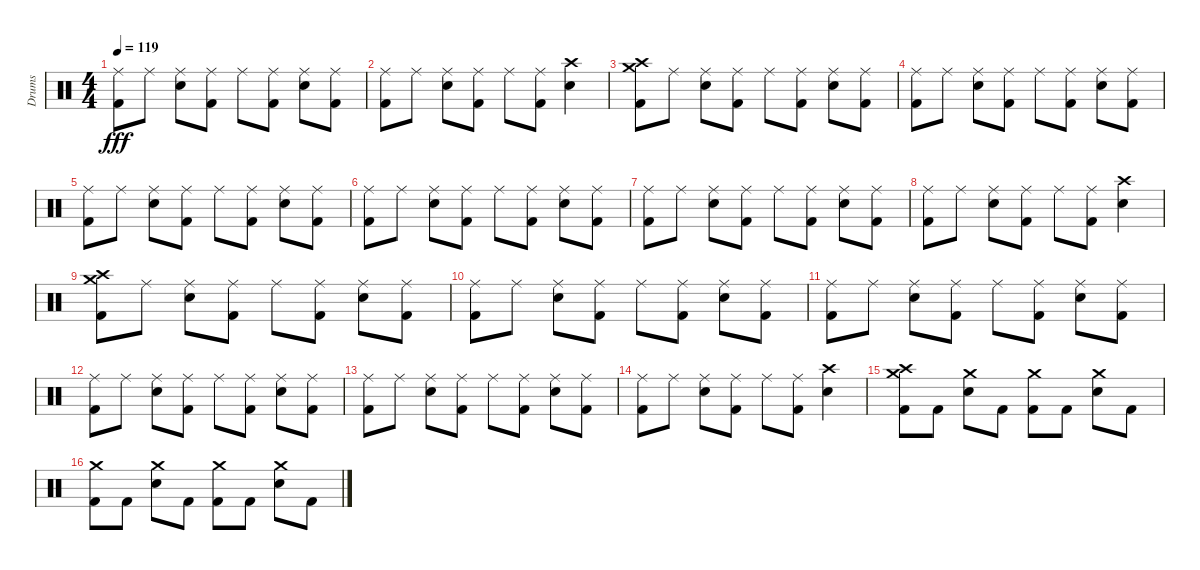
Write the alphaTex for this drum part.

\track ("Drums" "Drums") {instrument percussion}
\staff {score}
\articulation defaults
\ts (4 4)
\tempo 119
\clef neutral
\ks c
("Ride (middle)" "Kick (hit) 2").8{dy fff} "Ride (middle)".8 ("Ride (middle)" "Snare (hit) 2").8 ("Ride (middle)" "Kick (hit) 2").8 "Ride (middle)".8 ("Ride (middle)" "Kick (hit) 2").8 ("Ride (middle)" "Snare (hit) 2").8 ("Ride (middle)" "Kick (hit) 2").8 |
("Ride (middle)" "Kick (hit) 2").8 "Ride (middle)".8 ("Ride (middle)" "Snare (hit) 2").8 ("Ride (middle)" "Kick (hit) 2").8 "Ride (middle)".8 ("Ride (middle)" "Kick (hit) 2").8 ("Crash high (hit)" "Snare (hit) 2").4 |
("Crash high (hit)" "Crash medium (hit)" "Kick (hit) 2").8 "Ride (middle)".8 ("Ride (middle)" "Snare (hit) 2").8 ("Ride (middle)" "Kick (hit) 2").8 "Ride (middle)".8 ("Ride (middle)" "Kick (hit) 2").8 ("Ride (middle)" "Snare (hit) 2").8 ("Ride (middle)" "Kick (hit) 2").8 |
("Ride (middle)" "Kick (hit) 2").8 "Ride (middle)".8 ("Ride (middle)" "Snare (hit) 2").8 ("Ride (middle)" "Kick (hit) 2").8 "Ride (middle)".8 ("Ride (middle)" "Kick (hit) 2").8 ("Ride (middle)" "Snare (hit) 2").8 ("Ride (middle)" "Kick (hit) 2").8 |
("Ride (middle)" "Kick (hit) 2").8 "Ride (middle)".8 ("Ride (middle)" "Snare (hit) 2").8 ("Ride (middle)" "Kick (hit) 2").8 "Ride (middle)".8 ("Ride (middle)" "Kick (hit) 2").8 ("Ride (middle)" "Snare (hit) 2").8 ("Ride (middle)" "Kick (hit) 2").8 |
("Ride (middle)" "Kick (hit) 2").8 "Ride (middle)".8 ("Ride (middle)" "Snare (hit) 2").8 ("Ride (middle)" "Kick (hit) 2").8 "Ride (middle)".8 ("Ride (middle)" "Kick (hit) 2").8 ("Ride (middle)" "Snare (hit) 2").8 ("Ride (middle)" "Kick (hit) 2").8 |
("Ride (middle)" "Kick (hit) 2").8 "Ride (middle)".8 ("Ride (middle)" "Snare (hit) 2").8 ("Ride (middle)" "Kick (hit) 2").8 "Ride (middle)".8 ("Ride (middle)" "Kick (hit) 2").8 ("Ride (middle)" "Snare (hit) 2").8 ("Ride (middle)" "Kick (hit) 2").8 |
("Ride (middle)" "Kick (hit) 2").8 "Ride (middle)".8 ("Ride (middle)" "Snare (hit) 2").8 ("Ride (middle)" "Kick (hit) 2").8 "Ride (middle)".8 ("Ride (middle)" "Kick (hit) 2").8 ("Crash high (hit)" "Snare (hit) 2").4 |
("Crash high (hit)" "Crash medium (hit)" "Kick (hit) 2").8 "Ride (middle)".8 ("Ride (middle)" "Snare (hit) 2").8 ("Ride (middle)" "Kick (hit) 2").8 "Ride (middle)".8 ("Ride (middle)" "Kick (hit) 2").8 ("Ride (middle)" "Snare (hit) 2").8 ("Ride (middle)" "Kick (hit) 2").8 |
("Ride (middle)" "Kick (hit) 2").8 "Ride (middle)".8 ("Ride (middle)" "Snare (hit) 2").8 ("Ride (middle)" "Kick (hit) 2").8 "Ride (middle)".8 ("Ride (middle)" "Kick (hit) 2").8 ("Ride (middle)" "Snare (hit) 2").8 ("Ride (middle)" "Kick (hit) 2").8 |
("Ride (middle)" "Kick (hit) 2").8 "Ride (middle)".8 ("Ride (middle)" "Snare (hit) 2").8 ("Ride (middle)" "Kick (hit) 2").8 "Ride (middle)".8 ("Ride (middle)" "Kick (hit) 2").8 ("Ride (middle)" "Snare (hit) 2").8 ("Ride (middle)" "Kick (hit) 2").8 |
("Ride (middle)" "Kick (hit) 2").8 "Ride (middle)".8 ("Ride (middle)" "Snare (hit) 2").8 ("Ride (middle)" "Kick (hit) 2").8 "Ride (middle)".8 ("Ride (middle)" "Kick (hit) 2").8 ("Ride (middle)" "Snare (hit) 2").8 ("Ride (middle)" "Kick (hit) 2").8 |
("Ride (middle)" "Kick (hit) 2").8 "Ride (middle)".8 ("Ride (middle)" "Snare (hit) 2").8 ("Ride (middle)" "Kick (hit) 2").8 "Ride (middle)".8 ("Ride (middle)" "Kick (hit) 2").8 ("Ride (middle)" "Snare (hit) 2").8 ("Ride (middle)" "Kick (hit) 2").8 |
("Ride (middle)" "Kick (hit) 2").8 "Ride (middle)".8 ("Ride (middle)" "Snare (hit) 2").8 ("Ride (middle)" "Kick (hit) 2").8 "Ride (middle)".8 ("Ride (middle)" "Kick (hit) 2").8 ("Crash high (hit)" "Snare (hit) 2").4 |
("Crash high (hit)" "Crash medium (hit)" "Kick (hit) 2").8 "Kick (hit) 2".8 ("Crash medium (hit)" "Snare (hit) 2").8 "Kick (hit) 2".8 ("Crash medium (hit)" "Kick (hit) 2").8 "Kick (hit) 2".8 ("Crash medium (hit)" "Snare (hit) 2").8 "Kick (hit) 2".8 |
("Crash medium (hit)" "Kick (hit) 2").8 "Kick (hit) 2".8 ("Crash medium (hit)" "Snare (hit) 2").8 "Kick (hit) 2".8 ("Crash medium (hit)" "Kick (hit) 2").8 "Kick (hit) 2".8 ("Crash medium (hit)" "Snare (hit) 2").8 "Kick (hit) 2".8
